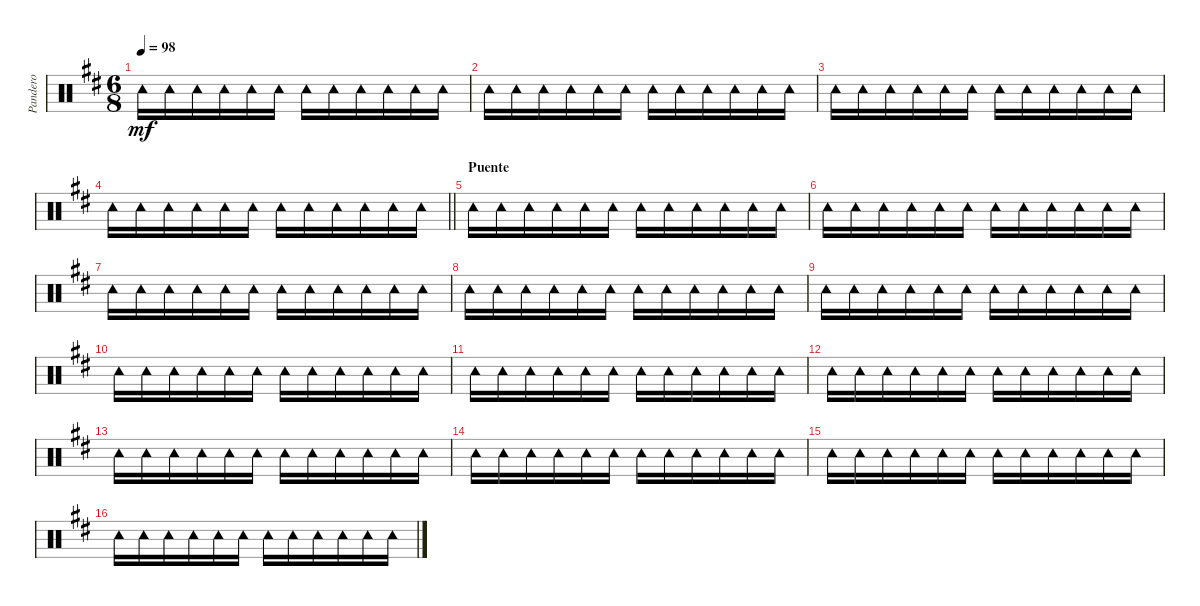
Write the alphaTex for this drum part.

\track ("Pandero" "Pandero") {instrument percussion}
\staff {score}
\articulation defaults
\ts (6 8)
\tempo 98
\clef neutral
\ks d "Tambourine (hit)".16{dy mf} "Tambourine (hit)".16 "Tambourine (hit)".16 "Tambourine (hit)".16 "Tambourine (hit)".16 "Tambourine (hit)".16 "Tambourine (hit)".16 "Tambourine (hit)".16 "Tambourine (hit)".16 "Tambourine (hit)".16 "Tambourine (hit)".16 "Tambourine (hit)".16
|
"Tambourine (hit)".16 "Tambourine (hit)".16 "Tambourine (hit)".16 "Tambourine (hit)".16 "Tambourine (hit)".16 "Tambourine (hit)".16 "Tambourine (hit)".16 "Tambourine (hit)".16 "Tambourine (hit)".16 "Tambourine (hit)".16 "Tambourine (hit)".16 "Tambourine (hit)".16 |
"Tambourine (hit)".16 "Tambourine (hit)".16 "Tambourine (hit)".16 "Tambourine (hit)".16 "Tambourine (hit)".16 "Tambourine (hit)".16 "Tambourine (hit)".16 "Tambourine (hit)".16 "Tambourine (hit)".16 "Tambourine (hit)".16 "Tambourine (hit)".16 "Tambourine (hit)".16 |
\barLineRight lightlight "Tambourine (hit)".16 "Tambourine (hit)".16 "Tambourine (hit)".16 "Tambourine (hit)".16 "Tambourine (hit)".16 "Tambourine (hit)".16 "Tambourine (hit)".16 "Tambourine (hit)".16 "Tambourine (hit)".16 "Tambourine (hit)".16 "Tambourine (hit)".16 "Tambourine (hit)".16
|
\section ("" "Puente")
"Tambourine (hit)".16 "Tambourine (hit)".16 "Tambourine (hit)".16 "Tambourine (hit)".16 "Tambourine (hit)".16 "Tambourine (hit)".16 "Tambourine (hit)".16 "Tambourine (hit)".16 "Tambourine (hit)".16 "Tambourine (hit)".16 "Tambourine (hit)".16 "Tambourine (hit)".16 |
"Tambourine (hit)".16 "Tambourine (hit)".16 "Tambourine (hit)".16 "Tambourine (hit)".16 "Tambourine (hit)".16 "Tambourine (hit)".16 "Tambourine (hit)".16 "Tambourine (hit)".16 "Tambourine (hit)".16 "Tambourine (hit)".16 "Tambourine (hit)".16 "Tambourine (hit)".16 |
"Tambourine (hit)".16 "Tambourine (hit)".16 "Tambourine (hit)".16 "Tambourine (hit)".16 "Tambourine (hit)".16 "Tambourine (hit)".16 "Tambourine (hit)".16 "Tambourine (hit)".16 "Tambourine (hit)".16 "Tambourine (hit)".16 "Tambourine (hit)".16 "Tambourine (hit)".16 |
"Tambourine (hit)".16 "Tambourine (hit)".16 "Tambourine (hit)".16 "Tambourine (hit)".16 "Tambourine (hit)".16 "Tambourine (hit)".16 "Tambourine (hit)".16 "Tambourine (hit)".16 "Tambourine (hit)".16 "Tambourine (hit)".16 "Tambourine (hit)".16 "Tambourine (hit)".16 |
"Tambourine (hit)".16 "Tambourine (hit)".16 "Tambourine (hit)".16 "Tambourine (hit)".16 "Tambourine (hit)".16 "Tambourine (hit)".16 "Tambourine (hit)".16 "Tambourine (hit)".16 "Tambourine (hit)".16 "Tambourine (hit)".16 "Tambourine (hit)".16 "Tambourine (hit)".16 |
"Tambourine (hit)".16 "Tambourine (hit)".16 "Tambourine (hit)".16 "Tambourine (hit)".16 "Tambourine (hit)".16 "Tambourine (hit)".16 "Tambourine (hit)".16 "Tambourine (hit)".16 "Tambourine (hit)".16 "Tambourine (hit)".16 "Tambourine (hit)".16 "Tambourine (hit)".16 |
"Tambourine (hit)".16 "Tambourine (hit)".16 "Tambourine (hit)".16 "Tambourine (hit)".16 "Tambourine (hit)".16 "Tambourine (hit)".16 "Tambourine (hit)".16 "Tambourine (hit)".16 "Tambourine (hit)".16 "Tambourine (hit)".16 "Tambourine (hit)".16 "Tambourine (hit)".16 |
"Tambourine (hit)".16 "Tambourine (hit)".16 "Tambourine (hit)".16 "Tambourine (hit)".16 "Tambourine (hit)".16 "Tambourine (hit)".16 "Tambourine (hit)".16 "Tambourine (hit)".16 "Tambourine (hit)".16 "Tambourine (hit)".16 "Tambourine (hit)".16 "Tambourine (hit)".16 |
"Tambourine (hit)".16 "Tambourine (hit)".16 "Tambourine (hit)".16 "Tambourine (hit)".16 "Tambourine (hit)".16 "Tambourine (hit)".16 "Tambourine (hit)".16 "Tambourine (hit)".16 "Tambourine (hit)".16 "Tambourine (hit)".16 "Tambourine (hit)".16 "Tambourine (hit)".16 |
"Tambourine (hit)".16 "Tambourine (hit)".16 "Tambourine (hit)".16 "Tambourine (hit)".16 "Tambourine (hit)".16 "Tambourine (hit)".16 "Tambourine (hit)".16 "Tambourine (hit)".16 "Tambourine (hit)".16 "Tambourine (hit)".16 "Tambourine (hit)".16 "Tambourine (hit)".16 |
"Tambourine (hit)".16 "Tambourine (hit)".16 "Tambourine (hit)".16 "Tambourine (hit)".16 "Tambourine (hit)".16 "Tambourine (hit)".16 "Tambourine (hit)".16 "Tambourine (hit)".16 "Tambourine (hit)".16 "Tambourine (hit)".16 "Tambourine (hit)".16 "Tambourine (hit)".16 |
"Tambourine (hit)".16 "Tambourine (hit)".16 "Tambourine (hit)".16 "Tambourine (hit)".16 "Tambourine (hit)".16 "Tambourine (hit)".16 "Tambourine (hit)".16 "Tambourine (hit)".16 "Tambourine (hit)".16 "Tambourine (hit)".16 "Tambourine (hit)".16 "Tambourine (hit)".16
